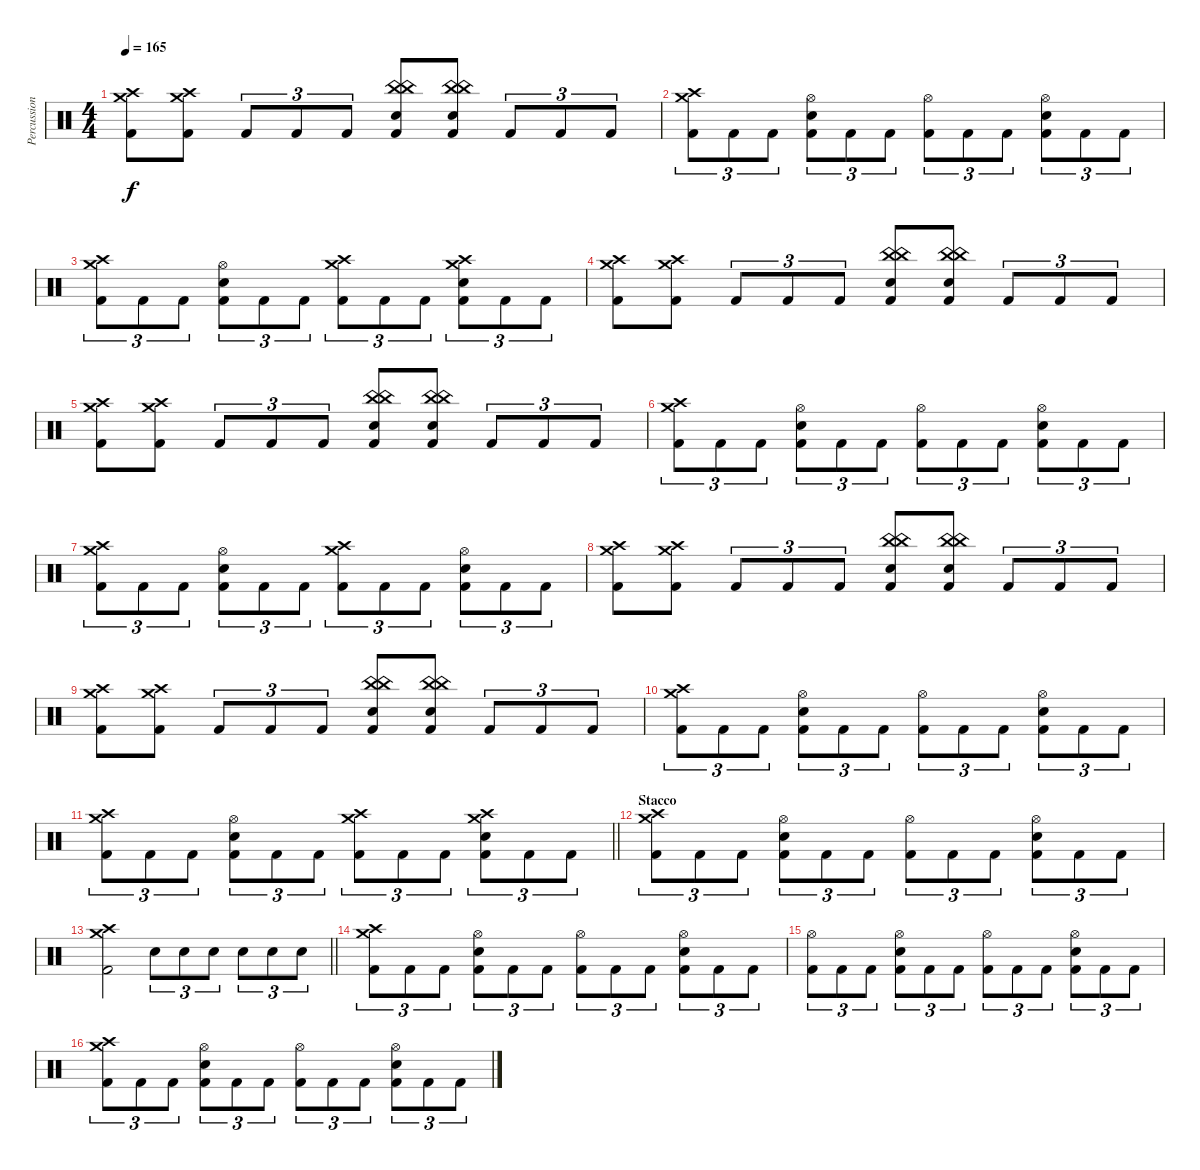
\track ("Percussioni" "Percussion") {instrument percussion}
\staff {score}
\articulation defaults
\ts (4 4)
\tempo 165
\clef neutral
\ks c
("Crash high (hit)" "Crash medium (hit)" "Kick (hit) 2").8{dy f} ("Crash high (hit)" "Crash medium (hit)" "Kick (hit) 2").8 "Kick (hit) 2".8{tu (3 2)} "Kick (hit) 2".8{tu (3 2)} "Kick (hit) 2".8{tu (3 2)} ("China (hit)" "China (hit)" "Electric Snare (hit)" "Kick (hit) 2").8 ("China (hit)" "China (hit)" "Electric Snare (hit)" "Kick (hit) 2").8 "Kick (hit) 2".8{tu (3 2)} "Kick (hit) 2".8{tu (3 2)} "Kick (hit) 2".8{tu (3 2)} |
("Crash high (hit)" "Crash medium (hit)" "Kick (hit) 2").8{tu (3 2)} "Kick (hit) 2".8{tu (3 2)} "Kick (hit) 2".8{tu (3 2)} ("Hi-Hat (open)" "Electric Snare (hit)" "Kick (hit) 2").8{tu (3 2)} "Kick (hit) 2".8{tu (3 2)} "Kick (hit) 2".8{tu (3 2)} ("Hi-Hat (open)" "Kick (hit) 2").8{tu (3 2)} "Kick (hit) 2".8{tu (3 2)} "Kick (hit) 2".8{tu (3 2)} ("Hi-Hat (open)" "Electric Snare (hit)" "Kick (hit) 2").8{tu (3 2)} "Kick (hit) 2".8{tu (3 2)} "Kick (hit) 2".8{tu (3 2)} |
("Crash high (hit)" "Crash medium (hit)" "Kick (hit) 2").8{tu (3 2)} "Kick (hit) 2".8{tu (3 2)} "Kick (hit) 2".8{tu (3 2)} ("Hi-Hat (open)" "Electric Snare (hit)" "Kick (hit) 2").8{tu (3 2)} "Kick (hit) 2".8{tu (3 2)} "Kick (hit) 2".8{tu (3 2)} ("Crash high (hit)" "Crash medium (hit)" "Kick (hit) 2").8{tu (3 2)} "Kick (hit) 2".8{tu (3 2)} "Kick (hit) 2".8{tu (3 2)} ("Crash high (hit)" "Crash medium (hit)" "Electric Snare (hit)" "Kick (hit) 2").8{tu (3 2)} "Kick (hit) 2".8{tu (3 2)} "Kick (hit) 2".8{tu (3 2)} |
("Crash high (hit)" "Crash medium (hit)" "Kick (hit) 2").8 ("Crash high (hit)" "Crash medium (hit)" "Kick (hit) 2").8 "Kick (hit) 2".8{tu (3 2)} "Kick (hit) 2".8{tu (3 2)} "Kick (hit) 2".8{tu (3 2)} ("China (hit)" "China (hit)" "Electric Snare (hit)" "Kick (hit) 2").8 ("China (hit)" "China (hit)" "Electric Snare (hit)" "Kick (hit) 2").8 "Kick (hit) 2".8{tu (3 2)} "Kick (hit) 2".8{tu (3 2)} "Kick (hit) 2".8{tu (3 2)} |
("Crash high (hit)" "Crash medium (hit)" "Kick (hit) 2").8 ("Crash high (hit)" "Crash medium (hit)" "Kick (hit) 2").8 "Kick (hit) 2".8{tu (3 2)} "Kick (hit) 2".8{tu (3 2)} "Kick (hit) 2".8{tu (3 2)} ("China (hit)" "China (hit)" "Electric Snare (hit)" "Kick (hit) 2").8 ("China (hit)" "China (hit)" "Electric Snare (hit)" "Kick (hit) 2").8 "Kick (hit) 2".8{tu (3 2)} "Kick (hit) 2".8{tu (3 2)} "Kick (hit) 2".8{tu (3 2)} |
("Crash high (hit)" "Crash medium (hit)" "Kick (hit) 2").8{tu (3 2)} "Kick (hit) 2".8{tu (3 2)} "Kick (hit) 2".8{tu (3 2)} ("Hi-Hat (open)" "Electric Snare (hit)" "Kick (hit) 2").8{tu (3 2)} "Kick (hit) 2".8{tu (3 2)} "Kick (hit) 2".8{tu (3 2)} ("Hi-Hat (open)" "Kick (hit) 2").8{tu (3 2)} "Kick (hit) 2".8{tu (3 2)} "Kick (hit) 2".8{tu (3 2)} ("Hi-Hat (open)" "Electric Snare (hit)" "Kick (hit) 2").8{tu (3 2)} "Kick (hit) 2".8{tu (3 2)} "Kick (hit) 2".8{tu (3 2)} |
("Crash high (hit)" "Crash medium (hit)" "Kick (hit) 2").8{tu (3 2)} "Kick (hit) 2".8{tu (3 2)} "Kick (hit) 2".8{tu (3 2)} ("Hi-Hat (open)" "Electric Snare (hit)" "Kick (hit) 2").8{tu (3 2)} "Kick (hit) 2".8{tu (3 2)} "Kick (hit) 2".8{tu (3 2)} ("Crash high (hit)" "Crash medium (hit)" "Kick (hit) 2").8{tu (3 2)} "Kick (hit) 2".8{tu (3 2)} "Kick (hit) 2".8{tu (3 2)} ("Hi-Hat (open)" "Electric Snare (hit)" "Kick (hit) 2").8{tu (3 2)} "Kick (hit) 2".8{tu (3 2)} "Kick (hit) 2".8{tu (3 2)} |
("Crash high (hit)" "Crash medium (hit)" "Kick (hit) 2").8 ("Crash high (hit)" "Crash medium (hit)" "Kick (hit) 2").8 "Kick (hit) 2".8{tu (3 2)} "Kick (hit) 2".8{tu (3 2)} "Kick (hit) 2".8{tu (3 2)} ("China (hit)" "China (hit)" "Electric Snare (hit)" "Kick (hit) 2").8 ("China (hit)" "China (hit)" "Electric Snare (hit)" "Kick (hit) 2").8 "Kick (hit) 2".8{tu (3 2)} "Kick (hit) 2".8{tu (3 2)} "Kick (hit) 2".8{tu (3 2)} |
("Crash high (hit)" "Crash medium (hit)" "Kick (hit) 2").8 ("Crash high (hit)" "Crash medium (hit)" "Kick (hit) 2").8 "Kick (hit) 2".8{tu (3 2)} "Kick (hit) 2".8{tu (3 2)} "Kick (hit) 2".8{tu (3 2)} ("China (hit)" "China (hit)" "Electric Snare (hit)" "Kick (hit) 2").8 ("China (hit)" "China (hit)" "Electric Snare (hit)" "Kick (hit) 2").8 "Kick (hit) 2".8{tu (3 2)} "Kick (hit) 2".8{tu (3 2)} "Kick (hit) 2".8{tu (3 2)} |
("Crash high (hit)" "Crash medium (hit)" "Kick (hit) 2").8{tu (3 2)} "Kick (hit) 2".8{tu (3 2)} "Kick (hit) 2".8{tu (3 2)} ("Hi-Hat (open)" "Electric Snare (hit)" "Kick (hit) 2").8{tu (3 2)} "Kick (hit) 2".8{tu (3 2)} "Kick (hit) 2".8{tu (3 2)} ("Hi-Hat (open)" "Kick (hit) 2").8{tu (3 2)} "Kick (hit) 2".8{tu (3 2)} "Kick (hit) 2".8{tu (3 2)} ("Hi-Hat (open)" "Electric Snare (hit)" "Kick (hit) 2").8{tu (3 2)} "Kick (hit) 2".8{tu (3 2)} "Kick (hit) 2".8{tu (3 2)} |
\barLineRight lightlight
("Crash high (hit)" "Crash medium (hit)" "Kick (hit) 2").8{tu (3 2)} "Kick (hit) 2".8{tu (3 2)} "Kick (hit) 2".8{tu (3 2)} ("Hi-Hat (open)" "Electric Snare (hit)" "Kick (hit) 2").8{tu (3 2)} "Kick (hit) 2".8{tu (3 2)} "Kick (hit) 2".8{tu (3 2)} ("Crash high (hit)" "Crash medium (hit)" "Kick (hit) 2").8{tu (3 2)} "Kick (hit) 2".8{tu (3 2)} "Kick (hit) 2".8{tu (3 2)} ("Crash high (hit)" "Crash medium (hit)" "Electric Snare (hit)" "Kick (hit) 2").8{tu (3 2)} "Kick (hit) 2".8{tu (3 2)} "Kick (hit) 2".8{tu (3 2)} |
\section ("" "Stacco")
("Crash high (hit)" "Crash medium (hit)" "Kick (hit) 2").8{tu (3 2)} "Kick (hit) 2".8{tu (3 2)} "Kick (hit) 2".8{tu (3 2)} ("Hi-Hat (open)" "Electric Snare (hit)" "Kick (hit) 2").8{tu (3 2)} "Kick (hit) 2".8{tu (3 2)} "Kick (hit) 2".8{tu (3 2)} ("Hi-Hat (open)" "Kick (hit) 2").8{tu (3 2)} "Kick (hit) 2".8{tu (3 2)} "Kick (hit) 2".8{tu (3 2)} ("Hi-Hat (open)" "Electric Snare (hit)" "Kick (hit) 2").8{tu (3 2)} "Kick (hit) 2".8{tu (3 2)} "Kick (hit) 2".8{tu (3 2)} |
\barLineRight lightlight
("Crash high (hit)" "Crash medium (hit)" "Kick (hit) 2").2 "Electric Snare (hit)".8{tu (3 2)} "Electric Snare (hit)".8{tu (3 2)} "Electric Snare (hit)".8{tu (3 2)} "Electric Snare (hit)".8{tu (3 2)} "Electric Snare (hit)".8{tu (3 2)} "Electric Snare (hit)".8{tu (3 2)} |
\section ("" "")
("Crash high (hit)" "Crash medium (hit)" "Kick (hit) 2").8{tu (3 2)} "Kick (hit) 2".8{tu (3 2)} "Kick (hit) 2".8{tu (3 2)} ("Hi-Hat (open)" "Electric Snare (hit)" "Kick (hit) 2").8{tu (3 2)} "Kick (hit) 2".8{tu (3 2)} "Kick (hit) 2".8{tu (3 2)} ("Hi-Hat (open)" "Kick (hit) 2").8{tu (3 2)} "Kick (hit) 2".8{tu (3 2)} "Kick (hit) 2".8{tu (3 2)} ("Hi-Hat (open)" "Electric Snare (hit)" "Kick (hit) 2").8{tu (3 2)} "Kick (hit) 2".8{tu (3 2)} "Kick (hit) 2".8{tu (3 2)} |
("Hi-Hat (open)" "Kick (hit) 2").8{tu (3 2)} "Kick (hit) 2".8{tu (3 2)} "Kick (hit) 2".8{tu (3 2)} ("Hi-Hat (open)" "Electric Snare (hit)" "Kick (hit) 2").8{tu (3 2)} "Kick (hit) 2".8{tu (3 2)} "Kick (hit) 2".8{tu (3 2)} ("Hi-Hat (open)" "Kick (hit) 2").8{tu (3 2)} "Kick (hit) 2".8{tu (3 2)} "Kick (hit) 2".8{tu (3 2)} ("Hi-Hat (open)" "Electric Snare (hit)" "Kick (hit) 2").8{tu (3 2)} "Kick (hit) 2".8{tu (3 2)} "Kick (hit) 2".8{tu (3 2)} |
("Crash high (hit)" "Crash medium (hit)" "Kick (hit) 2").8{tu (3 2)} "Kick (hit) 2".8{tu (3 2)} "Kick (hit) 2".8{tu (3 2)} ("Hi-Hat (open)" "Electric Snare (hit)" "Kick (hit) 2").8{tu (3 2)} "Kick (hit) 2".8{tu (3 2)} "Kick (hit) 2".8{tu (3 2)} ("Hi-Hat (open)" "Kick (hit) 2").8{tu (3 2)} "Kick (hit) 2".8{tu (3 2)} "Kick (hit) 2".8{tu (3 2)} ("Hi-Hat (open)" "Electric Snare (hit)" "Kick (hit) 2").8{tu (3 2)} "Kick (hit) 2".8{tu (3 2)} "Kick (hit) 2".8{tu (3 2)}
